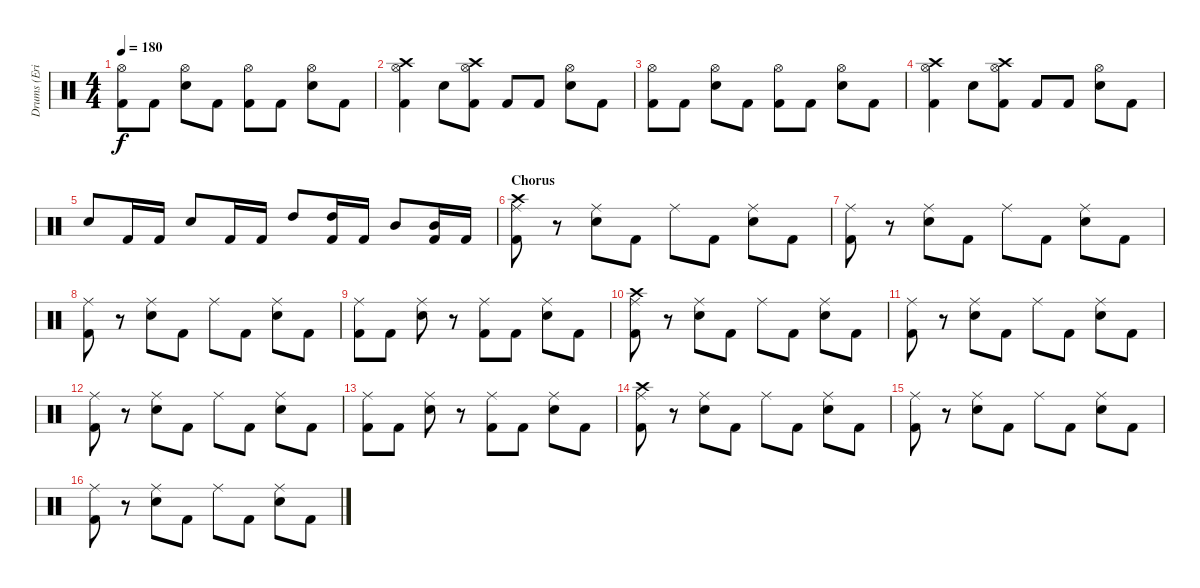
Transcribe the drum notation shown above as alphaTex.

\track ("Drums (Eric Young)" "Drums (Eri") {instrument percussion}
\staff {score}
\articulation defaults
\ts (4 4)
\tempo 180
\clef neutral
\ks c
("Hi-Hat (open)" "Kick (hit) 2").8{dy f} "Kick (hit) 2".8 ("Hi-Hat (open)" "Snare (hit) 2").8 "Kick (hit) 2".8 ("Hi-Hat (open)" "Kick (hit) 2").8 "Kick (hit) 2".8 ("Hi-Hat (open)" "Snare (hit) 2").8 "Kick (hit) 2".8 |
("Crash high (hit)" "Hi-Hat (open)" "Kick (hit) 2").4 "Snare (hit) 2".8 ("Crash high (hit)" "Hi-Hat (open)" "Kick (hit) 2").8 "Kick (hit) 2".8 "Kick (hit) 2".8 ("Hi-Hat (open)" "Snare (hit) 2").8 "Kick (hit) 2".8 |
("Hi-Hat (open)" "Kick (hit) 2").8 "Kick (hit) 2".8 ("Hi-Hat (open)" "Snare (hit) 2").8 "Kick (hit) 2".8 ("Hi-Hat (open)" "Kick (hit) 2").8 "Kick (hit) 2".8 ("Hi-Hat (open)" "Snare (hit) 2").8 "Kick (hit) 2".8 |
("Crash high (hit)" "Hi-Hat (open)" "Kick (hit) 2").4 "Snare (hit) 2".8 ("Crash high (hit)" "Hi-Hat (open)" "Kick (hit) 2").8 "Kick (hit) 2".8 "Kick (hit) 2".8 ("Hi-Hat (open)" "Snare (hit) 2").8 "Kick (hit) 2".8 |
"Snare (hit) 2".8 "Kick (hit) 2".16 "Kick (hit) 2".16 "Snare (hit) 2".8 "Kick (hit) 2".16 "Kick (hit) 2".16 "High Tom (hit)".8 ("High Tom (hit)" "Kick (hit) 2").16 "Kick (hit) 2".16 "Mid Tom (hit)".8 ("Mid Tom (hit)" "Kick (hit) 2").16 "Kick (hit) 2".16 |
\section ("" "Chorus")
("Crash high (hit)" "Ride (middle)" "Kick (hit) 2").8 r.8 ("Ride (middle)" "Snare (hit) 2").8 "Kick (hit) 2".8 "Ride (middle)".8 "Kick (hit) 2".8 ("Ride (middle)" "Snare (hit) 2").8 "Kick (hit) 2".8 |
("Ride (middle)" "Kick (hit) 2").8 r.8 ("Ride (middle)" "Snare (hit) 2").8 "Kick (hit) 2".8 "Ride (middle)".8 "Kick (hit) 2".8 ("Ride (middle)" "Snare (hit) 2").8 "Kick (hit) 2".8 |
("Ride (middle)" "Kick (hit) 2").8 r.8 ("Ride (middle)" "Snare (hit) 2").8 "Kick (hit) 2".8 "Ride (middle)".8 "Kick (hit) 2".8 ("Ride (middle)" "Snare (hit) 2").8 "Kick (hit) 2".8 |
("Ride (middle)" "Kick (hit) 2").8 "Kick (hit) 2".8 ("Ride (middle)" "Snare (hit) 2").8 r.8 ("Ride (middle)" "Kick (hit) 2").8 "Kick (hit) 2".8 ("Ride (middle)" "Snare (hit) 2").8 "Kick (hit) 2".8 |
("Crash high (hit)" "Ride (middle)" "Kick (hit) 2").8 r.8 ("Ride (middle)" "Snare (hit) 2").8 "Kick (hit) 2".8 "Ride (middle)".8 "Kick (hit) 2".8 ("Ride (middle)" "Snare (hit) 2").8 "Kick (hit) 2".8 |
("Ride (middle)" "Kick (hit) 2").8 r.8 ("Ride (middle)" "Snare (hit) 2").8 "Kick (hit) 2".8 "Ride (middle)".8 "Kick (hit) 2".8 ("Ride (middle)" "Snare (hit) 2").8 "Kick (hit) 2".8 |
("Ride (middle)" "Kick (hit) 2").8 r.8 ("Ride (middle)" "Snare (hit) 2").8 "Kick (hit) 2".8 "Ride (middle)".8 "Kick (hit) 2".8 ("Ride (middle)" "Snare (hit) 2").8 "Kick (hit) 2".8 |
("Ride (middle)" "Kick (hit) 2").8 "Kick (hit) 2".8 ("Ride (middle)" "Snare (hit) 2").8 r.8 ("Ride (middle)" "Kick (hit) 2").8 "Kick (hit) 2".8 ("Ride (middle)" "Snare (hit) 2").8 "Kick (hit) 2".8 |
("Crash high (hit)" "Ride (middle)" "Kick (hit) 2").8 r.8 ("Ride (middle)" "Snare (hit) 2").8 "Kick (hit) 2".8 "Ride (middle)".8 "Kick (hit) 2".8 ("Ride (middle)" "Snare (hit) 2").8 "Kick (hit) 2".8 |
("Ride (middle)" "Kick (hit) 2").8 r.8 ("Ride (middle)" "Snare (hit) 2").8 "Kick (hit) 2".8 "Ride (middle)".8 "Kick (hit) 2".8 ("Ride (middle)" "Snare (hit) 2").8 "Kick (hit) 2".8 |
("Ride (middle)" "Kick (hit) 2").8 r.8 ("Ride (middle)" "Snare (hit) 2").8 "Kick (hit) 2".8 "Ride (middle)".8 "Kick (hit) 2".8 ("Ride (middle)" "Snare (hit) 2").8 "Kick (hit) 2".8
